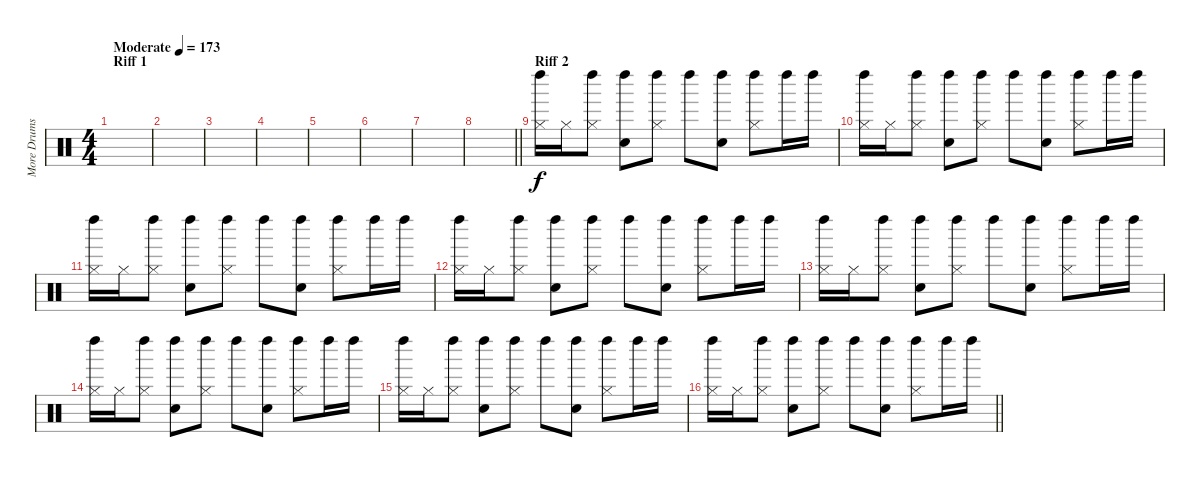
\track ("More Drums" "More Drums") {instrument percussion}
\staff {score}
\articulation defaults
\ts (4 4)
\section ("" "Riff 1")
\tempo (173 "Moderate")
\clef neutral
\ks c
|
|
|
|
|
|
|
\barLineRight lightlight
|
\section ("" "Riff 2")
("Hi-Hat (closed)" "Left Maraca (hit)").16 "Hi-Hat (closed)".16 ("Hi-Hat (closed)" "Left Maraca (hit)").8 ("Snare (hit) 2" "Left Maraca (hit)").8 ("Hi-Hat (closed)" "Left Maraca (hit)").8 "Left Maraca (hit)".8 ("Snare (hit) 2" "Left Maraca (hit)").8 ("Hi-Hat (closed)" "Left Maraca (hit)").8 "Left Maraca (hit)".16 "Left Maraca (hit)".16 |
("Hi-Hat (closed)" "Left Maraca (hit)").16 "Hi-Hat (closed)".16 ("Hi-Hat (closed)" "Left Maraca (hit)").8 ("Snare (hit) 2" "Left Maraca (hit)").8 ("Hi-Hat (closed)" "Left Maraca (hit)").8 "Left Maraca (hit)".8 ("Snare (hit) 2" "Left Maraca (hit)").8 ("Hi-Hat (closed)" "Left Maraca (hit)").8 "Left Maraca (hit)".16 "Left Maraca (hit)".16 |
("Hi-Hat (closed)" "Left Maraca (hit)").16 "Hi-Hat (closed)".16 ("Hi-Hat (closed)" "Left Maraca (hit)").8 ("Snare (hit) 2" "Left Maraca (hit)").8 ("Hi-Hat (closed)" "Left Maraca (hit)").8 "Left Maraca (hit)".8 ("Snare (hit) 2" "Left Maraca (hit)").8 ("Hi-Hat (closed)" "Left Maraca (hit)").8 "Left Maraca (hit)".16 "Left Maraca (hit)".16 |
("Hi-Hat (closed)" "Left Maraca (hit)").16 "Hi-Hat (closed)".16 ("Hi-Hat (closed)" "Left Maraca (hit)").8 ("Snare (hit) 2" "Left Maraca (hit)").8 ("Hi-Hat (closed)" "Left Maraca (hit)").8 "Left Maraca (hit)".8 ("Snare (hit) 2" "Left Maraca (hit)").8 ("Hi-Hat (closed)" "Left Maraca (hit)").8 "Left Maraca (hit)".16 "Left Maraca (hit)".16 |
("Hi-Hat (closed)" "Left Maraca (hit)").16 "Hi-Hat (closed)".16 ("Hi-Hat (closed)" "Left Maraca (hit)").8 ("Snare (hit) 2" "Left Maraca (hit)").8 ("Hi-Hat (closed)" "Left Maraca (hit)").8 "Left Maraca (hit)".8 ("Snare (hit) 2" "Left Maraca (hit)").8 ("Hi-Hat (closed)" "Left Maraca (hit)").8 "Left Maraca (hit)".16 "Left Maraca (hit)".16 |
("Hi-Hat (closed)" "Left Maraca (hit)").16 "Hi-Hat (closed)".16 ("Hi-Hat (closed)" "Left Maraca (hit)").8 ("Snare (hit) 2" "Left Maraca (hit)").8 ("Hi-Hat (closed)" "Left Maraca (hit)").8 "Left Maraca (hit)".8 ("Snare (hit) 2" "Left Maraca (hit)").8 ("Hi-Hat (closed)" "Left Maraca (hit)").8 "Left Maraca (hit)".16 "Left Maraca (hit)".16 |
("Hi-Hat (closed)" "Left Maraca (hit)").16 "Hi-Hat (closed)".16 ("Hi-Hat (closed)" "Left Maraca (hit)").8 ("Snare (hit) 2" "Left Maraca (hit)").8 ("Hi-Hat (closed)" "Left Maraca (hit)").8 "Left Maraca (hit)".8 ("Snare (hit) 2" "Left Maraca (hit)").8 ("Hi-Hat (closed)" "Left Maraca (hit)").8 "Left Maraca (hit)".16 "Left Maraca (hit)".16 |
\barLineRight lightlight
("Hi-Hat (closed)" "Left Maraca (hit)").16 "Hi-Hat (closed)".16 ("Hi-Hat (closed)" "Left Maraca (hit)").8 ("Snare (hit) 2" "Left Maraca (hit)").8 ("Hi-Hat (closed)" "Left Maraca (hit)").8 "Left Maraca (hit)".8 ("Snare (hit) 2" "Left Maraca (hit)").8 ("Hi-Hat (closed)" "Left Maraca (hit)").8 "Left Maraca (hit)".16 "Left Maraca (hit)".16
